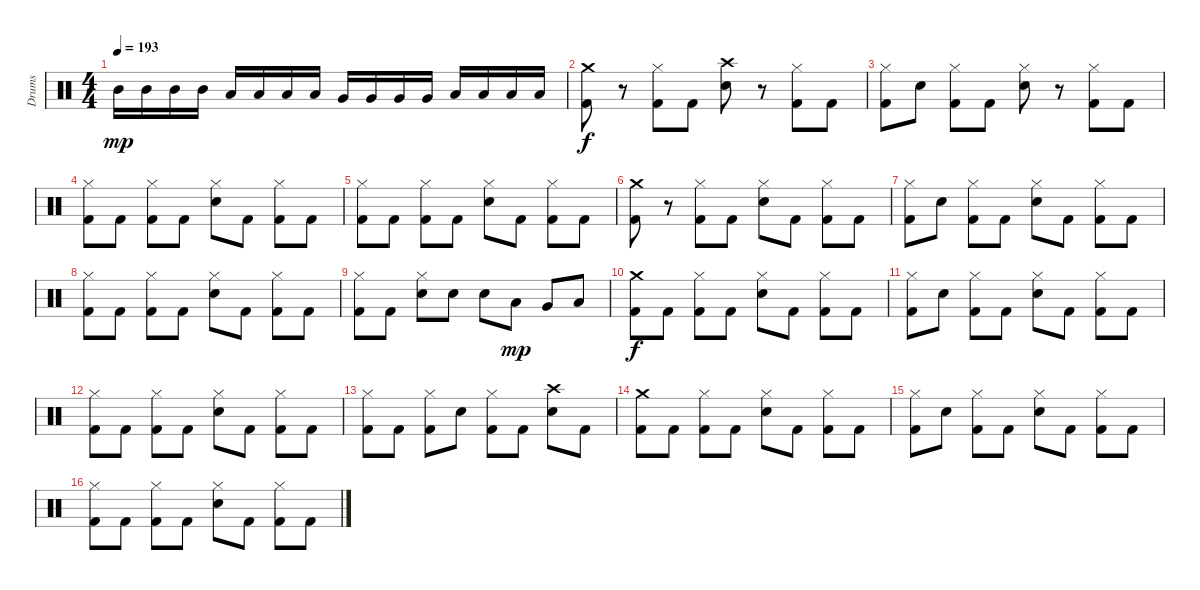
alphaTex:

\track ("Drums" "Drums") {instrument percussion}
\staff {score}
\articulation defaults
\ts (4 4)
\tempo 193
\clef neutral
\ks c "Mid Tom (hit)".16{dy mp} "Mid Tom (hit)".16 "Mid Tom (hit)".16 "Mid Tom (hit)".16 "Low Tom (hit)".16 "Low Tom (hit)".16 "Low Tom (hit)".16 "Low Tom (hit)".16 "Very Low Tom (hit)".16 "Very Low Tom (hit)".16 "Very Low Tom (hit)".16 "Very Low Tom (hit)".16 "Low Floor Tom (hit)".16 "Low Floor Tom (hit)".16 "Low Floor Tom (hit)".16 "Low Floor Tom (hit)".16
|
("Crash medium (hit)" "Kick (hit) 2").8{dy f} r.8 ("Hi-Hat (closed)" "Kick (hit) 2").8 "Kick (hit) 2".8 ("Crash high (hit)" "Snare (hit) 2").8 r.8 ("Hi-Hat (closed)" "Kick (hit) 2").8 "Kick (hit) 2".8 |
("Hi-Hat (closed)" "Kick (hit) 2").8 "Snare (hit) 2".8 ("Hi-Hat (closed)" "Kick (hit) 2").8 "Kick (hit) 2".8 ("Hi-Hat (closed)" "Snare (hit) 2").8 r.8 ("Hi-Hat (closed)" "Kick (hit) 2").8 "Kick (hit) 2".8 |
("Hi-Hat (closed)" "Kick (hit) 2").8 "Kick (hit) 2".8 ("Hi-Hat (closed)" "Kick (hit) 2").8 "Kick (hit) 2".8 ("Hi-Hat (closed)" "Snare (hit) 2").8 "Kick (hit) 2".8 ("Hi-Hat (closed)" "Kick (hit) 2").8 "Kick (hit) 2".8 |
("Hi-Hat (closed)" "Kick (hit) 2").8 "Kick (hit) 2".8 ("Hi-Hat (closed)" "Kick (hit) 2").8 "Kick (hit) 2".8 ("Hi-Hat (closed)" "Snare (hit) 2").8 "Kick (hit) 2".8 ("Hi-Hat (closed)" "Kick (hit) 2").8 "Kick (hit) 2".8 |
("Crash medium (hit)" "Kick (hit) 2").8 r.8 ("Hi-Hat (closed)" "Kick (hit) 2").8 "Kick (hit) 2".8 ("Hi-Hat (closed)" "Snare (hit) 2").8 "Kick (hit) 2".8 ("Hi-Hat (closed)" "Kick (hit) 2").8 "Kick (hit) 2".8 |
("Hi-Hat (closed)" "Kick (hit) 2").8 "Snare (hit) 2".8 ("Hi-Hat (closed)" "Kick (hit) 2").8 "Kick (hit) 2".8 ("Hi-Hat (closed)" "Snare (hit) 2").8 "Kick (hit) 2".8 ("Hi-Hat (closed)" "Kick (hit) 2").8 "Kick (hit) 2".8 |
("Hi-Hat (closed)" "Kick (hit) 2").8 "Kick (hit) 2".8 ("Hi-Hat (closed)" "Kick (hit) 2").8 "Kick (hit) 2".8 ("Hi-Hat (closed)" "Snare (hit) 2").8 "Kick (hit) 2".8 ("Hi-Hat (closed)" "Kick (hit) 2").8 "Kick (hit) 2".8 |
("Hi-Hat (closed)" "Kick (hit) 2").8 "Kick (hit) 2".8 ("Hi-Hat (closed)" "Snare (hit) 2").8 "Snare (hit) 2".8 "Snare (hit) 2".8 "Low Tom (hit)".8{dy mp} "Very Low Tom (hit)".8 "Low Floor Tom (hit)".8 |
("Crash medium (hit)" "Kick (hit) 2").8{dy f} "Kick (hit) 2".8 ("Hi-Hat (closed)" "Kick (hit) 2").8 "Kick (hit) 2".8 ("Hi-Hat (closed)" "Snare (hit) 2").8 "Kick (hit) 2".8 ("Hi-Hat (closed)" "Kick (hit) 2").8 "Kick (hit) 2".8 |
("Hi-Hat (closed)" "Kick (hit) 2").8 "Snare (hit) 2".8 ("Hi-Hat (closed)" "Kick (hit) 2").8 "Kick (hit) 2".8 ("Hi-Hat (closed)" "Snare (hit) 2").8 "Kick (hit) 2".8 ("Hi-Hat (closed)" "Kick (hit) 2").8 "Kick (hit) 2".8 |
("Hi-Hat (closed)" "Kick (hit) 2").8 "Kick (hit) 2".8 ("Hi-Hat (closed)" "Kick (hit) 2").8 "Kick (hit) 2".8 ("Hi-Hat (closed)" "Snare (hit) 2").8 "Kick (hit) 2".8 ("Hi-Hat (closed)" "Kick (hit) 2").8 "Kick (hit) 2".8 |
("Hi-Hat (closed)" "Kick (hit) 2").8 "Kick (hit) 2".8 ("Hi-Hat (closed)" "Kick (hit) 2").8 "Snare (hit) 2".8 ("Hi-Hat (closed)" "Kick (hit) 2").8 "Kick (hit) 2".8 ("Crash high (hit)" "Snare (hit) 2").8 "Kick (hit) 2".8 |
("Crash medium (hit)" "Kick (hit) 2").8 "Kick (hit) 2".8 ("Hi-Hat (closed)" "Kick (hit) 2").8 "Kick (hit) 2".8 ("Hi-Hat (closed)" "Snare (hit) 2").8 "Kick (hit) 2".8 ("Hi-Hat (closed)" "Kick (hit) 2").8 "Kick (hit) 2".8 |
("Hi-Hat (closed)" "Kick (hit) 2").8 "Snare (hit) 2".8 ("Hi-Hat (closed)" "Kick (hit) 2").8 "Kick (hit) 2".8 ("Hi-Hat (closed)" "Snare (hit) 2").8 "Kick (hit) 2".8 ("Hi-Hat (closed)" "Kick (hit) 2").8 "Kick (hit) 2".8 |
("Hi-Hat (closed)" "Kick (hit) 2").8 "Kick (hit) 2".8 ("Hi-Hat (closed)" "Kick (hit) 2").8 "Kick (hit) 2".8 ("Hi-Hat (closed)" "Snare (hit) 2").8 "Kick (hit) 2".8 ("Hi-Hat (closed)" "Kick (hit) 2").8 "Kick (hit) 2".8
